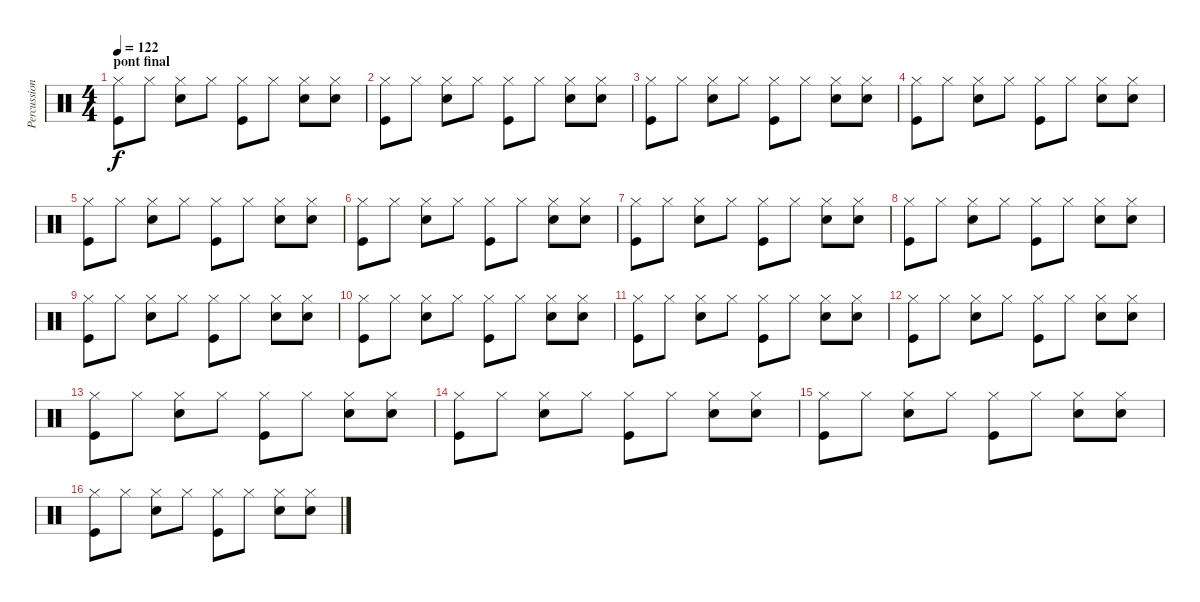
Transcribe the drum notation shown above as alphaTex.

\track ("Percussions" "Percussion") {instrument percussion}
\staff {score}
\articulation defaults
\ts (4 4)
\section ("" "pont final")
\tempo 122
\clef neutral
\ks c
("Hi-Hat (closed)" "Kick (hit)").8{dy f} "Hi-Hat (closed)".8 ("Hi-Hat (closed)" "Snare (hit) 2").8 "Hi-Hat (closed)".8 ("Hi-Hat (closed)" "Kick (hit)").8 "Hi-Hat (closed)".8 ("Hi-Hat (closed)" "Snare (hit) 2").8 ("Hi-Hat (closed)" "Snare (hit) 2").8 |
("Hi-Hat (closed)" "Kick (hit)").8 "Hi-Hat (closed)".8 ("Hi-Hat (closed)" "Snare (hit) 2").8 "Hi-Hat (closed)".8 ("Hi-Hat (closed)" "Kick (hit)").8 "Hi-Hat (closed)".8 ("Hi-Hat (closed)" "Snare (hit) 2").8 ("Hi-Hat (closed)" "Snare (hit) 2").8 |
("Hi-Hat (closed)" "Kick (hit)").8 "Hi-Hat (closed)".8 ("Hi-Hat (closed)" "Snare (hit) 2").8 "Hi-Hat (closed)".8 ("Hi-Hat (closed)" "Kick (hit)").8 "Hi-Hat (closed)".8 ("Hi-Hat (closed)" "Snare (hit) 2").8 ("Hi-Hat (closed)" "Snare (hit) 2").8 |
("Hi-Hat (closed)" "Kick (hit)").8 "Hi-Hat (closed)".8 ("Hi-Hat (closed)" "Snare (hit) 2").8 "Hi-Hat (closed)".8 ("Hi-Hat (closed)" "Kick (hit)").8 "Hi-Hat (closed)".8 ("Hi-Hat (closed)" "Snare (hit) 2").8 ("Hi-Hat (closed)" "Snare (hit) 2").8 |
("Hi-Hat (closed)" "Kick (hit)").8 "Hi-Hat (closed)".8 ("Hi-Hat (closed)" "Snare (hit) 2").8 "Hi-Hat (closed)".8 ("Hi-Hat (closed)" "Kick (hit)").8 "Hi-Hat (closed)".8 ("Hi-Hat (closed)" "Snare (hit) 2").8 ("Hi-Hat (closed)" "Snare (hit) 2").8 |
("Hi-Hat (closed)" "Kick (hit)").8 "Hi-Hat (closed)".8 ("Hi-Hat (closed)" "Snare (hit) 2").8 "Hi-Hat (closed)".8 ("Hi-Hat (closed)" "Kick (hit)").8 "Hi-Hat (closed)".8 ("Hi-Hat (closed)" "Snare (hit) 2").8 ("Hi-Hat (closed)" "Snare (hit) 2").8 |
("Hi-Hat (closed)" "Kick (hit)").8 "Hi-Hat (closed)".8 ("Hi-Hat (closed)" "Snare (hit) 2").8 "Hi-Hat (closed)".8 ("Hi-Hat (closed)" "Kick (hit)").8 "Hi-Hat (closed)".8 ("Hi-Hat (closed)" "Snare (hit) 2").8 ("Hi-Hat (closed)" "Snare (hit) 2").8 |
("Hi-Hat (closed)" "Kick (hit)").8 "Hi-Hat (closed)".8 ("Hi-Hat (closed)" "Snare (hit) 2").8 "Hi-Hat (closed)".8 ("Hi-Hat (closed)" "Kick (hit)").8 "Hi-Hat (closed)".8 ("Hi-Hat (closed)" "Snare (hit) 2").8 ("Hi-Hat (closed)" "Snare (hit) 2").8 |
("Hi-Hat (closed)" "Kick (hit)").8 "Hi-Hat (closed)".8 ("Hi-Hat (closed)" "Snare (hit) 2").8 "Hi-Hat (closed)".8 ("Hi-Hat (closed)" "Kick (hit)").8 "Hi-Hat (closed)".8 ("Hi-Hat (closed)" "Snare (hit) 2").8 ("Hi-Hat (closed)" "Snare (hit) 2").8 |
("Hi-Hat (closed)" "Kick (hit)").8 "Hi-Hat (closed)".8 ("Hi-Hat (closed)" "Snare (hit) 2").8 "Hi-Hat (closed)".8 ("Hi-Hat (closed)" "Kick (hit)").8 "Hi-Hat (closed)".8 ("Hi-Hat (closed)" "Snare (hit) 2").8 ("Hi-Hat (closed)" "Snare (hit) 2").8 |
("Hi-Hat (closed)" "Kick (hit)").8 "Hi-Hat (closed)".8 ("Hi-Hat (closed)" "Snare (hit) 2").8 "Hi-Hat (closed)".8 ("Hi-Hat (closed)" "Kick (hit)").8 "Hi-Hat (closed)".8 ("Hi-Hat (closed)" "Snare (hit) 2").8 ("Hi-Hat (closed)" "Snare (hit) 2").8 |
("Hi-Hat (closed)" "Kick (hit)").8 "Hi-Hat (closed)".8 ("Hi-Hat (closed)" "Snare (hit) 2").8 "Hi-Hat (closed)".8 ("Hi-Hat (closed)" "Kick (hit)").8 "Hi-Hat (closed)".8 ("Hi-Hat (closed)" "Snare (hit) 2").8 ("Hi-Hat (closed)" "Snare (hit) 2").8 |
("Hi-Hat (closed)" "Kick (hit)").8 "Hi-Hat (closed)".8 ("Hi-Hat (closed)" "Snare (hit) 2").8 "Hi-Hat (closed)".8 ("Hi-Hat (closed)" "Kick (hit)").8 "Hi-Hat (closed)".8 ("Hi-Hat (closed)" "Snare (hit) 2").8 ("Hi-Hat (closed)" "Snare (hit) 2").8 |
("Hi-Hat (closed)" "Kick (hit)").8 "Hi-Hat (closed)".8 ("Hi-Hat (closed)" "Snare (hit) 2").8 "Hi-Hat (closed)".8 ("Hi-Hat (closed)" "Kick (hit)").8 "Hi-Hat (closed)".8 ("Hi-Hat (closed)" "Snare (hit) 2").8 ("Hi-Hat (closed)" "Snare (hit) 2").8 |
("Hi-Hat (closed)" "Kick (hit)").8 "Hi-Hat (closed)".8 ("Hi-Hat (closed)" "Snare (hit) 2").8 "Hi-Hat (closed)".8 ("Hi-Hat (closed)" "Kick (hit)").8 "Hi-Hat (closed)".8 ("Hi-Hat (closed)" "Snare (hit) 2").8 ("Hi-Hat (closed)" "Snare (hit) 2").8 |
("Hi-Hat (closed)" "Kick (hit)").8 "Hi-Hat (closed)".8 ("Hi-Hat (closed)" "Snare (hit) 2").8 "Hi-Hat (closed)".8 ("Hi-Hat (closed)" "Kick (hit)").8 "Hi-Hat (closed)".8 ("Hi-Hat (closed)" "Snare (hit) 2").8 ("Hi-Hat (closed)" "Snare (hit) 2").8
